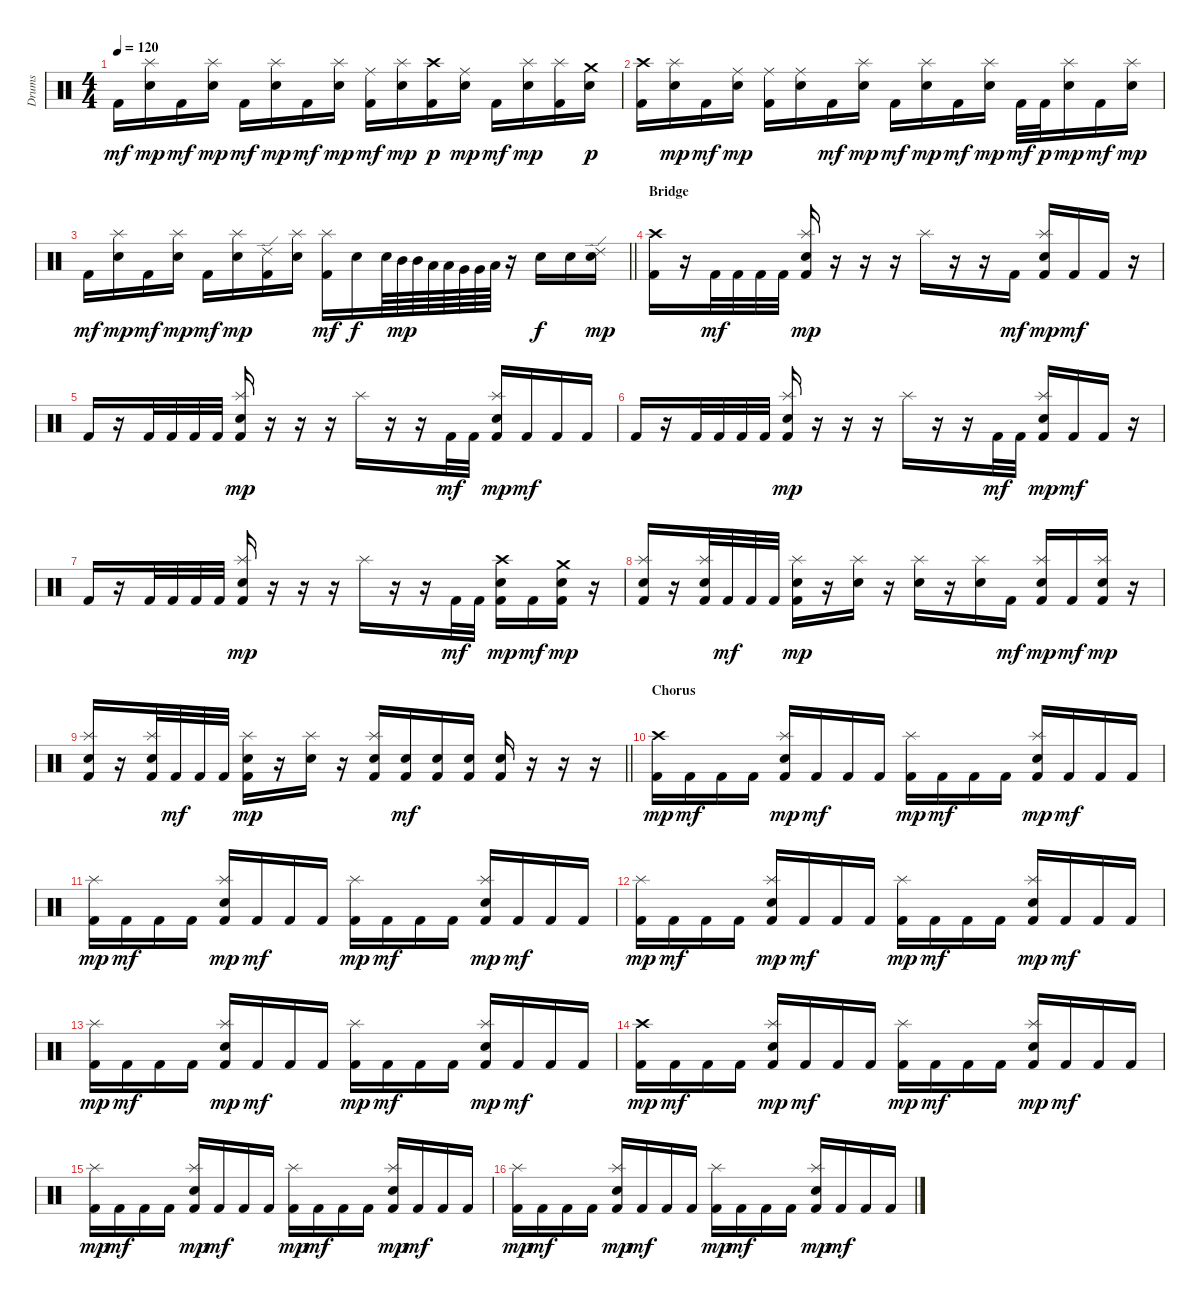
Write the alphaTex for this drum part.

\track ("Drums" "Drums") {instrument percussion}
\staff {score}
\articulation defaults
\ts (4 4)
\tempo 120
\clef neutral
\ks c "Kick (hit) 2".16{dy mf}
("Splash (hit)" "Snare (hit) 2").16{dy mp} "Kick (hit) 2".16{dy mf} ("Splash (hit)" "Snare (hit) 2").16{dy mp} "Kick (hit) 2".16{dy mf} ("Splash (hit)" "Snare (hit) 2").16{dy mp} "Kick (hit) 2".16{dy mf} ("Splash (hit)" "Snare (hit) 2").16{dy mp} ("Kick (hit) 2" "Ride (middle)").16{dy mf} ("Splash (hit)" "Snare (hit) 2").16{dy mp} ("Kick (hit) 2" "Crash high (hit)").16{dy p} ("Ride (middle)" "Snare (hit) 2").16{dy mp} "Kick (hit) 2".16{dy mf} ("Splash (hit)" "Snare (hit) 2").16{dy mp} ("Kick (hit) 2" "Splash (hit)").16 ("Crash medium (hit)" "Snare (hit) 2").16{dy p} |
("Kick (hit) 2" "Crash high (hit)").16 ("Splash (hit)" "Snare (hit) 2").16{dy mp} "Kick (hit) 2".16{dy mf} ("Ride (middle)" "Snare (hit) 2").16{dy mp} ("Kick (hit) 2" "Ride (middle)").16 ("Ride (middle)" "Snare (hit) 2").16 "Kick (hit) 2".16{dy mf} ("Splash (hit)" "Snare (hit) 2").16{dy mp} "Kick (hit) 2".16{dy mf} ("Splash (hit)" "Snare (hit) 2").16{dy mp} "Kick (hit) 2".16{dy mf} ("Splash (hit)" "Snare (hit) 2").16{dy mp} "Kick (hit) 2".32{dy mf} "Kick (hit) 2".32{dy p} ("Splash (hit)" "Snare (hit) 2").16{dy mp} "Kick (hit) 2".16{dy mf} ("Splash (hit)" "Snare (hit) 2").16{dy mp} |
\barLineRight lightlight "Kick (hit) 2".16{dy mf}
("Splash (hit)" "Snare (hit) 2").16{dy mp} "Kick (hit) 2".16{dy mf} ("Splash (hit)" "Snare (hit) 2").16{dy mp} "Kick (hit) 2".16{dy mf} ("Splash (hit)" "Snare (hit) 2").16{dy mp} ("Kick (hit) 2" "Ride (edge) 2").16 ("Splash (hit)" "Snare (hit) 2").16 ("Kick (hit) 2" "Splash (hit)").16{dy mf} "Snare (hit) 2".16{dy f} "Snare (hit) 2".64 "Mid Tom (hit)".64{dy mp} "Mid Tom (hit)".64 "Low Tom (hit)".64 "Low Tom (hit)".64 "Very Low Tom (hit)".64 "Very Low Tom (hit)".64 "Low Floor Tom (hit)".64 r.16 "Snare (hit) 2".16{dy f} "Snare (hit) 2".16 ("Ride (edge) 2" "Snare (hit) 2").16{dy mp} |
\section ("" "Bridge")
("Kick (hit) 2" "Crash high (hit)").16 r.16 "Kick (hit) 2".32{dy mf} "Kick (hit) 2".32 "Kick (hit) 2".32 "Kick (hit) 2".32 ("Kick (hit) 2" "Splash (hit)" "Snare (hit) 2").16{dy mp} r.16 r.16 r.16 "Splash (hit)".16 r.16 r.16 "Kick (hit) 2".16{dy mf} ("Kick (hit) 2" "Splash (hit)" "Snare (hit) 2").16{dy mp} "Kick (hit) 2".16{dy mf} "Kick (hit) 2".16 r.16 |
"Kick (hit) 2".16 r.16 "Kick (hit) 2".32 "Kick (hit) 2".32 "Kick (hit) 2".32 "Kick (hit) 2".32 ("Kick (hit) 2" "Splash (hit)" "Snare (hit) 2").16{dy mp} r.16 r.16 r.16 "Splash (hit)".16 r.16 r.16 "Kick (hit) 2".32{dy mf} "Kick (hit) 2".32 ("Kick (hit) 2" "Splash (hit)" "Snare (hit) 2").16{dy mp} "Kick (hit) 2".16{dy mf} "Kick (hit) 2".16 "Kick (hit) 2".16 |
"Kick (hit) 2".16 r.16 "Kick (hit) 2".32 "Kick (hit) 2".32 "Kick (hit) 2".32 "Kick (hit) 2".32 ("Kick (hit) 2" "Splash (hit)" "Snare (hit) 2").16{dy mp} r.16 r.16 r.16 "Splash (hit)".16 r.16 r.16 "Kick (hit) 2".32{dy mf} "Kick (hit) 2".32 ("Kick (hit) 2" "Splash (hit)" "Snare (hit) 2").16{dy mp} "Kick (hit) 2".16{dy mf} "Kick (hit) 2".16 r.16 |
"Kick (hit) 2".16 r.16 "Kick (hit) 2".32 "Kick (hit) 2".32 "Kick (hit) 2".32 "Kick (hit) 2".32 ("Kick (hit) 2" "Splash (hit)" "Snare (hit) 2").16{dy mp} r.16 r.16 r.16 "Splash (hit)".16 r.16 r.16 "Kick (hit) 2".32{dy mf} "Kick (hit) 2".32 ("Kick (hit) 2" "Crash high (hit)" "Snare (hit) 2").16{dy mp} "Kick (hit) 2".16{dy mf} ("Kick (hit) 2" "Crash medium (hit)" "Snare (hit) 2").16{dy mp} r.16 |
("Kick (hit) 2" "Splash (hit)" "Snare (hit) 2").16 r.16 ("Kick (hit) 2" "Splash (hit)" "Snare (hit) 2").32 "Kick (hit) 2".32{dy mf} "Kick (hit) 2".32 "Kick (hit) 2".32 ("Kick (hit) 2" "Splash (hit)" "Snare (hit) 2").16{dy mp} r.16 ("Splash (hit)" "Snare (hit) 2").16 r.16 ("Splash (hit)" "Snare (hit) 2").16 r.16 ("Splash (hit)" "Snare (hit) 2").16 "Kick (hit) 2".16{dy mf} ("Kick (hit) 2" "Splash (hit)" "Snare (hit) 2").16{dy mp} "Kick (hit) 2".16{dy mf} ("Kick (hit) 2" "Splash (hit)" "Snare (hit) 2").16{dy mp} r.16 |
\barLineRight lightlight
("Kick (hit) 2" "Splash (hit)" "Snare (hit) 2").16 r.16 ("Kick (hit) 2" "Splash (hit)" "Snare (hit) 2").32 "Kick (hit) 2".32{dy mf} "Kick (hit) 2".32 "Kick (hit) 2".32 ("Kick (hit) 2" "Splash (hit)" "Snare (hit) 2").16{dy mp} r.16 ("Splash (hit)" "Snare (hit) 2").16 r.16 ("Kick (hit) 2" "Splash (hit)" "Snare (hit) 2").16 ("Kick (hit) 2" "Snare (hit) 2").16{dy mf} ("Kick (hit) 2" "Snare (hit) 2").16 ("Kick (hit) 2" "Snare (hit) 2").16 ("Kick (hit) 2" "Snare (hit) 2").16 r.16 r.16 r.16 |
\section ("" "Chorus")
("Kick (hit) 2" "Crash high (hit)").16{dy mp} "Kick (hit) 2".16{dy mf} "Kick (hit) 2".16 "Kick (hit) 2".16 ("Kick (hit) 2" "Splash (hit)" "Snare (hit) 2").16{dy mp} "Kick (hit) 2".16{dy mf} "Kick (hit) 2".16 "Kick (hit) 2".16 ("Kick (hit) 2" "Splash (hit)").16{dy mp} "Kick (hit) 2".16{dy mf} "Kick (hit) 2".16 "Kick (hit) 2".16 ("Kick (hit) 2" "Splash (hit)" "Snare (hit) 2").16{dy mp} "Kick (hit) 2".16{dy mf} "Kick (hit) 2".16 "Kick (hit) 2".16 |
("Kick (hit) 2" "Splash (hit)").16{dy mp} "Kick (hit) 2".16{dy mf} "Kick (hit) 2".16 "Kick (hit) 2".16 ("Kick (hit) 2" "Splash (hit)" "Snare (hit) 2").16{dy mp} "Kick (hit) 2".16{dy mf} "Kick (hit) 2".16 "Kick (hit) 2".16 ("Kick (hit) 2" "Splash (hit)").16{dy mp} "Kick (hit) 2".16{dy mf} "Kick (hit) 2".16 "Kick (hit) 2".16 ("Kick (hit) 2" "Splash (hit)" "Snare (hit) 2").16{dy mp} "Kick (hit) 2".16{dy mf} "Kick (hit) 2".16 "Kick (hit) 2".16 |
("Kick (hit) 2" "Splash (hit)").16{dy mp} "Kick (hit) 2".16{dy mf} "Kick (hit) 2".16 "Kick (hit) 2".16 ("Kick (hit) 2" "Splash (hit)" "Snare (hit) 2").16{dy mp} "Kick (hit) 2".16{dy mf} "Kick (hit) 2".16 "Kick (hit) 2".16 ("Kick (hit) 2" "Splash (hit)").16{dy mp} "Kick (hit) 2".16{dy mf} "Kick (hit) 2".16 "Kick (hit) 2".16 ("Kick (hit) 2" "Splash (hit)" "Snare (hit) 2").16{dy mp} "Kick (hit) 2".16{dy mf} "Kick (hit) 2".16 "Kick (hit) 2".16 |
("Kick (hit) 2" "Splash (hit)").16{dy mp} "Kick (hit) 2".16{dy mf} "Kick (hit) 2".16 "Kick (hit) 2".16 ("Kick (hit) 2" "Splash (hit)" "Snare (hit) 2").16{dy mp} "Kick (hit) 2".16{dy mf} "Kick (hit) 2".16 "Kick (hit) 2".16 ("Kick (hit) 2" "Splash (hit)").16{dy mp} "Kick (hit) 2".16{dy mf} "Kick (hit) 2".16 "Kick (hit) 2".16 ("Kick (hit) 2" "Splash (hit)" "Snare (hit) 2").16{dy mp} "Kick (hit) 2".16{dy mf} "Kick (hit) 2".16 "Kick (hit) 2".16 |
("Kick (hit) 2" "Crash high (hit)").16{dy mp} "Kick (hit) 2".16{dy mf} "Kick (hit) 2".16 "Kick (hit) 2".16 ("Kick (hit) 2" "Splash (hit)" "Snare (hit) 2").16{dy mp} "Kick (hit) 2".16{dy mf} "Kick (hit) 2".16 "Kick (hit) 2".16 ("Kick (hit) 2" "Splash (hit)").16{dy mp} "Kick (hit) 2".16{dy mf} "Kick (hit) 2".16 "Kick (hit) 2".16 ("Kick (hit) 2" "Splash (hit)" "Snare (hit) 2").16{dy mp} "Kick (hit) 2".16{dy mf} "Kick (hit) 2".16 "Kick (hit) 2".16 |
("Kick (hit) 2" "Splash (hit)").16{dy mp} "Kick (hit) 2".16{dy mf} "Kick (hit) 2".16 "Kick (hit) 2".16 ("Kick (hit) 2" "Splash (hit)" "Snare (hit) 2").16{dy mp} "Kick (hit) 2".16{dy mf} "Kick (hit) 2".16 "Kick (hit) 2".16 ("Kick (hit) 2" "Splash (hit)").16{dy mp} "Kick (hit) 2".16{dy mf} "Kick (hit) 2".16 "Kick (hit) 2".16 ("Kick (hit) 2" "Splash (hit)" "Snare (hit) 2").16{dy mp} "Kick (hit) 2".16{dy mf} "Kick (hit) 2".16 "Kick (hit) 2".16 |
("Kick (hit) 2" "Splash (hit)").16{dy mp} "Kick (hit) 2".16{dy mf} "Kick (hit) 2".16 "Kick (hit) 2".16 ("Kick (hit) 2" "Splash (hit)" "Snare (hit) 2").16{dy mp} "Kick (hit) 2".16{dy mf} "Kick (hit) 2".16 "Kick (hit) 2".16 ("Kick (hit) 2" "Splash (hit)").16{dy mp} "Kick (hit) 2".16{dy mf} "Kick (hit) 2".16 "Kick (hit) 2".16 ("Kick (hit) 2" "Splash (hit)" "Snare (hit) 2").16{dy mp} "Kick (hit) 2".16{dy mf} "Kick (hit) 2".16 "Kick (hit) 2".16
